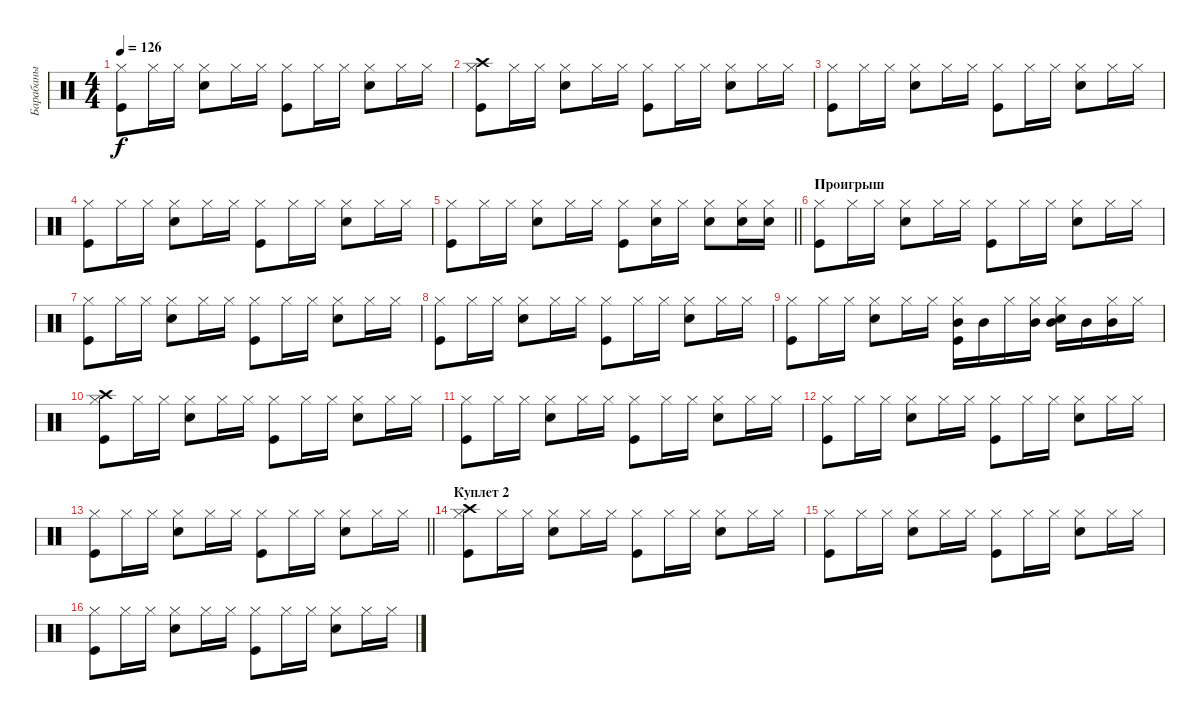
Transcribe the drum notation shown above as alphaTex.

\track ("Барабаны" "Барабаны") {instrument percussion}
\staff {score}
\articulation defaults
\ts (4 4)
\tempo 126
\clef neutral
\ks c
("Kick (hit)" "Hi-Hat (closed)").8{dy f} "Hi-Hat (closed)".16 "Hi-Hat (closed)".16 ("Snare (hit) 2" "Hi-Hat (closed)").8 "Hi-Hat (closed)".16 "Hi-Hat (closed)".16 ("Kick (hit)" "Hi-Hat (closed)").8 "Hi-Hat (closed)".16 "Hi-Hat (closed)".16 ("Snare (hit) 2" "Hi-Hat (closed)").8 "Hi-Hat (closed)".16 "Hi-Hat (closed)".16 |
("Kick (hit)" "Hi-Hat (closed)" "Crash high (hit)").8 "Hi-Hat (closed)".16 "Hi-Hat (closed)".16 ("Snare (hit) 2" "Hi-Hat (closed)").8 "Hi-Hat (closed)".16 "Hi-Hat (closed)".16 ("Kick (hit)" "Hi-Hat (closed)").8 "Hi-Hat (closed)".16 "Hi-Hat (closed)".16 ("Snare (hit) 2" "Hi-Hat (closed)").8 "Hi-Hat (closed)".16 "Hi-Hat (closed)".16 |
("Kick (hit)" "Hi-Hat (closed)").8 "Hi-Hat (closed)".16 "Hi-Hat (closed)".16 ("Snare (hit) 2" "Hi-Hat (closed)").8 "Hi-Hat (closed)".16 "Hi-Hat (closed)".16 ("Kick (hit)" "Hi-Hat (closed)").8 "Hi-Hat (closed)".16 "Hi-Hat (closed)".16 ("Snare (hit) 2" "Hi-Hat (closed)").8 "Hi-Hat (closed)".16 "Hi-Hat (closed)".16 |
("Kick (hit)" "Hi-Hat (closed)").8 "Hi-Hat (closed)".16 "Hi-Hat (closed)".16 ("Snare (hit) 2" "Hi-Hat (closed)").8 "Hi-Hat (closed)".16 "Hi-Hat (closed)".16 ("Kick (hit)" "Hi-Hat (closed)").8 "Hi-Hat (closed)".16 "Hi-Hat (closed)".16 ("Snare (hit) 2" "Hi-Hat (closed)").8 "Hi-Hat (closed)".16 "Hi-Hat (closed)".16 |
\barLineRight lightlight
("Kick (hit)" "Hi-Hat (closed)").8 "Hi-Hat (closed)".16 "Hi-Hat (closed)".16 ("Snare (hit) 2" "Hi-Hat (closed)").8 "Hi-Hat (closed)".16 "Hi-Hat (closed)".16 ("Kick (hit)" "Hi-Hat (closed)").8 ("Snare (hit) 2" "Hi-Hat (closed)").16 "Hi-Hat (closed)".16 ("Snare (hit) 2" "Hi-Hat (closed)").8 ("Snare (hit) 2" "Hi-Hat (closed)").16 ("Snare (hit) 2" "Hi-Hat (closed)").16 |
\section ("" "Проигрыш")
("Kick (hit)" "Hi-Hat (closed)").8 "Hi-Hat (closed)".16 "Hi-Hat (closed)".16 ("Snare (hit) 2" "Hi-Hat (closed)").8 "Hi-Hat (closed)".16 "Hi-Hat (closed)".16 ("Kick (hit)" "Hi-Hat (closed)").8 "Hi-Hat (closed)".16 "Hi-Hat (closed)".16 ("Snare (hit) 2" "Hi-Hat (closed)").8 "Hi-Hat (closed)".16 "Hi-Hat (closed)".16 |
("Kick (hit)" "Hi-Hat (closed)").8 "Hi-Hat (closed)".16 "Hi-Hat (closed)".16 ("Snare (hit) 2" "Hi-Hat (closed)").8 "Hi-Hat (closed)".16 "Hi-Hat (closed)".16 ("Kick (hit)" "Hi-Hat (closed)").8 "Hi-Hat (closed)".16 "Hi-Hat (closed)".16 ("Snare (hit) 2" "Hi-Hat (closed)").8 "Hi-Hat (closed)".16 "Hi-Hat (closed)".16 |
("Kick (hit)" "Hi-Hat (closed)").8 "Hi-Hat (closed)".16 "Hi-Hat (closed)".16 ("Snare (hit) 2" "Hi-Hat (closed)").8 "Hi-Hat (closed)".16 "Hi-Hat (closed)".16 ("Kick (hit)" "Hi-Hat (closed)").8 "Hi-Hat (closed)".16 "Hi-Hat (closed)".16 ("Snare (hit) 2" "Hi-Hat (closed)").8 "Hi-Hat (closed)".16 "Hi-Hat (closed)".16 |
("Kick (hit)" "Hi-Hat (closed)").8 "Hi-Hat (closed)".16 "Hi-Hat (closed)".16 ("Snare (hit) 2" "Hi-Hat (closed)").8 "Hi-Hat (closed)".16 "Hi-Hat (closed)".16 ("Kick (hit)" "Hi-Hat (closed)" "Mid Tom (hit)").16 "Mid Tom (hit)".16 "Hi-Hat (closed)".16 ("Hi-Hat (closed)" "Mid Tom (hit)").16 ("Snare (hit) 2" "Hi-Hat (closed)" "Mid Tom (hit)").16 "Mid Tom (hit)".16 ("Hi-Hat (closed)" "Mid Tom (hit)").16 "Hi-Hat (closed)".16 |
("Kick (hit)" "Hi-Hat (closed)" "Crash high (hit)").8 "Hi-Hat (closed)".16 "Hi-Hat (closed)".16 ("Snare (hit) 2" "Hi-Hat (closed)").8 "Hi-Hat (closed)".16 "Hi-Hat (closed)".16 ("Kick (hit)" "Hi-Hat (closed)").8 "Hi-Hat (closed)".16 "Hi-Hat (closed)".16 ("Snare (hit) 2" "Hi-Hat (closed)").8 "Hi-Hat (closed)".16 "Hi-Hat (closed)".16 |
("Kick (hit)" "Hi-Hat (closed)").8 "Hi-Hat (closed)".16 "Hi-Hat (closed)".16 ("Snare (hit) 2" "Hi-Hat (closed)").8 "Hi-Hat (closed)".16 "Hi-Hat (closed)".16 ("Kick (hit)" "Hi-Hat (closed)").8 "Hi-Hat (closed)".16 "Hi-Hat (closed)".16 ("Snare (hit) 2" "Hi-Hat (closed)").8 "Hi-Hat (closed)".16 "Hi-Hat (closed)".16 |
("Kick (hit)" "Hi-Hat (closed)").8 "Hi-Hat (closed)".16 "Hi-Hat (closed)".16 ("Snare (hit) 2" "Hi-Hat (closed)").8 "Hi-Hat (closed)".16 "Hi-Hat (closed)".16 ("Kick (hit)" "Hi-Hat (closed)").8 "Hi-Hat (closed)".16 "Hi-Hat (closed)".16 ("Snare (hit) 2" "Hi-Hat (closed)").8 "Hi-Hat (closed)".16 "Hi-Hat (closed)".16 |
\barLineRight lightlight
("Kick (hit)" "Hi-Hat (closed)").8 "Hi-Hat (closed)".16 "Hi-Hat (closed)".16 ("Snare (hit) 2" "Hi-Hat (closed)").8 "Hi-Hat (closed)".16 "Hi-Hat (closed)".16 ("Kick (hit)" "Hi-Hat (closed)").8 "Hi-Hat (closed)".16 "Hi-Hat (closed)".16 ("Snare (hit) 2" "Hi-Hat (closed)").8 "Hi-Hat (closed)".16 "Hi-Hat (closed)".16 |
\section ("" "Куплет 2")
("Kick (hit)" "Hi-Hat (closed)" "Crash high (hit)").8 "Hi-Hat (closed)".16 "Hi-Hat (closed)".16 ("Snare (hit) 2" "Hi-Hat (closed)").8 "Hi-Hat (closed)".16 "Hi-Hat (closed)".16 ("Kick (hit)" "Hi-Hat (closed)").8 "Hi-Hat (closed)".16 "Hi-Hat (closed)".16 ("Snare (hit) 2" "Hi-Hat (closed)").8 "Hi-Hat (closed)".16 "Hi-Hat (closed)".16 |
("Kick (hit)" "Hi-Hat (closed)").8 "Hi-Hat (closed)".16 "Hi-Hat (closed)".16 ("Snare (hit) 2" "Hi-Hat (closed)").8 "Hi-Hat (closed)".16 "Hi-Hat (closed)".16 ("Kick (hit)" "Hi-Hat (closed)").8 "Hi-Hat (closed)".16 "Hi-Hat (closed)".16 ("Snare (hit) 2" "Hi-Hat (closed)").8 "Hi-Hat (closed)".16 "Hi-Hat (closed)".16 |
("Kick (hit)" "Hi-Hat (closed)").8 "Hi-Hat (closed)".16 "Hi-Hat (closed)".16 ("Snare (hit) 2" "Hi-Hat (closed)").8 "Hi-Hat (closed)".16 "Hi-Hat (closed)".16 ("Kick (hit)" "Hi-Hat (closed)").8 "Hi-Hat (closed)".16 "Hi-Hat (closed)".16 ("Snare (hit) 2" "Hi-Hat (closed)").8 "Hi-Hat (closed)".16 "Hi-Hat (closed)".16
